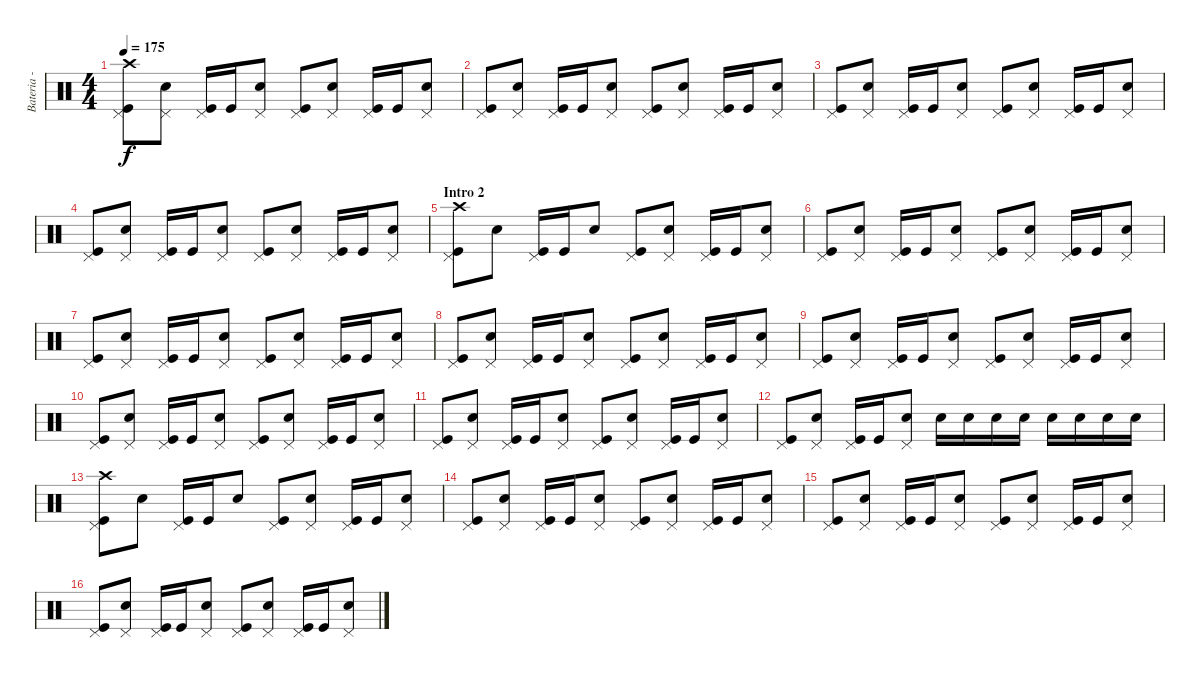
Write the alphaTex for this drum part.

\track ("Bateria - Larzon" "Bateria - ") {instrument percussion}
\staff {score}
\articulation defaults
\ts (4 4)
\tempo 175
\clef neutral
\ks c
("Crash high (hit)" "Kick (hit)" "Pedal Hi-Hat (hit)").8{dy f} ("Snare (hit) 2" "Pedal Hi-Hat (hit)").8 ("Kick (hit)" "Pedal Hi-Hat (hit)").16 "Kick (hit)".16 ("Snare (hit) 2" "Pedal Hi-Hat (hit)").8 ("Kick (hit)" "Pedal Hi-Hat (hit)").8 ("Snare (hit) 2" "Pedal Hi-Hat (hit)").8 ("Kick (hit)" "Pedal Hi-Hat (hit)").16 "Kick (hit)".16 ("Snare (hit) 2" "Pedal Hi-Hat (hit)").8 |
("Kick (hit)" "Pedal Hi-Hat (hit)").8 ("Snare (hit) 2" "Pedal Hi-Hat (hit)").8 ("Kick (hit)" "Pedal Hi-Hat (hit)").16 "Kick (hit)".16 ("Snare (hit) 2" "Pedal Hi-Hat (hit)").8 ("Kick (hit)" "Pedal Hi-Hat (hit)").8 ("Snare (hit) 2" "Pedal Hi-Hat (hit)").8 ("Kick (hit)" "Pedal Hi-Hat (hit)").16 "Kick (hit)".16 ("Snare (hit) 2" "Pedal Hi-Hat (hit)").8 |
("Kick (hit)" "Pedal Hi-Hat (hit)").8 ("Snare (hit) 2" "Pedal Hi-Hat (hit)").8 ("Kick (hit)" "Pedal Hi-Hat (hit)").16 "Kick (hit)".16 ("Snare (hit) 2" "Pedal Hi-Hat (hit)").8 ("Kick (hit)" "Pedal Hi-Hat (hit)").8 ("Snare (hit) 2" "Pedal Hi-Hat (hit)").8 ("Kick (hit)" "Pedal Hi-Hat (hit)").16 "Kick (hit)".16 ("Snare (hit) 2" "Pedal Hi-Hat (hit)").8 |
("Kick (hit)" "Pedal Hi-Hat (hit)").8 ("Snare (hit) 2" "Pedal Hi-Hat (hit)").8 ("Kick (hit)" "Pedal Hi-Hat (hit)").16 "Kick (hit)".16 ("Snare (hit) 2" "Pedal Hi-Hat (hit)").8 ("Kick (hit)" "Pedal Hi-Hat (hit)").8 ("Snare (hit) 2" "Pedal Hi-Hat (hit)").8 ("Kick (hit)" "Pedal Hi-Hat (hit)").16 "Kick (hit)".16 ("Snare (hit) 2" "Pedal Hi-Hat (hit)").8 |
\section ("" "Intro 2")
("Kick (hit)" "Crash high (hit)" "Pedal Hi-Hat (hit)").8 "Snare (hit) 2".8 ("Kick (hit)" "Pedal Hi-Hat (hit)").16 "Kick (hit)".16 "Snare (hit) 2".8 ("Kick (hit)" "Pedal Hi-Hat (hit)").8 ("Snare (hit) 2" "Pedal Hi-Hat (hit)").8 ("Kick (hit)" "Pedal Hi-Hat (hit)").16 "Kick (hit)".16 ("Snare (hit) 2" "Pedal Hi-Hat (hit)").8 |
("Kick (hit)" "Pedal Hi-Hat (hit)").8 ("Snare (hit) 2" "Pedal Hi-Hat (hit)").8 ("Kick (hit)" "Pedal Hi-Hat (hit)").16 "Kick (hit)".16 ("Snare (hit) 2" "Pedal Hi-Hat (hit)").8 ("Kick (hit)" "Pedal Hi-Hat (hit)").8 ("Snare (hit) 2" "Pedal Hi-Hat (hit)").8 ("Kick (hit)" "Pedal Hi-Hat (hit)").16 "Kick (hit)".16 ("Snare (hit) 2" "Pedal Hi-Hat (hit)").8 |
("Kick (hit)" "Pedal Hi-Hat (hit)").8 ("Snare (hit) 2" "Pedal Hi-Hat (hit)").8 ("Kick (hit)" "Pedal Hi-Hat (hit)").16 "Kick (hit)".16 ("Snare (hit) 2" "Pedal Hi-Hat (hit)").8 ("Kick (hit)" "Pedal Hi-Hat (hit)").8 ("Snare (hit) 2" "Pedal Hi-Hat (hit)").8 ("Kick (hit)" "Pedal Hi-Hat (hit)").16 "Kick (hit)".16 ("Snare (hit) 2" "Pedal Hi-Hat (hit)").8 |
("Kick (hit)" "Pedal Hi-Hat (hit)").8 ("Snare (hit) 2" "Pedal Hi-Hat (hit)").8 ("Kick (hit)" "Pedal Hi-Hat (hit)").16 "Kick (hit)".16 ("Snare (hit) 2" "Pedal Hi-Hat (hit)").8 ("Kick (hit)" "Pedal Hi-Hat (hit)").8 ("Snare (hit) 2" "Pedal Hi-Hat (hit)").8 ("Kick (hit)" "Pedal Hi-Hat (hit)").16 "Kick (hit)".16 ("Snare (hit) 2" "Pedal Hi-Hat (hit)").8 |
("Kick (hit)" "Pedal Hi-Hat (hit)").8 ("Snare (hit) 2" "Pedal Hi-Hat (hit)").8 ("Kick (hit)" "Pedal Hi-Hat (hit)").16 "Kick (hit)".16 ("Snare (hit) 2" "Pedal Hi-Hat (hit)").8 ("Kick (hit)" "Pedal Hi-Hat (hit)").8 ("Snare (hit) 2" "Pedal Hi-Hat (hit)").8 ("Kick (hit)" "Pedal Hi-Hat (hit)").16 "Kick (hit)".16 ("Snare (hit) 2" "Pedal Hi-Hat (hit)").8 |
("Kick (hit)" "Pedal Hi-Hat (hit)").8 ("Snare (hit) 2" "Pedal Hi-Hat (hit)").8 ("Kick (hit)" "Pedal Hi-Hat (hit)").16 "Kick (hit)".16 ("Snare (hit) 2" "Pedal Hi-Hat (hit)").8 ("Kick (hit)" "Pedal Hi-Hat (hit)").8 ("Snare (hit) 2" "Pedal Hi-Hat (hit)").8 ("Kick (hit)" "Pedal Hi-Hat (hit)").16 "Kick (hit)".16 ("Snare (hit) 2" "Pedal Hi-Hat (hit)").8 |
("Kick (hit)" "Pedal Hi-Hat (hit)").8 ("Snare (hit) 2" "Pedal Hi-Hat (hit)").8 ("Kick (hit)" "Pedal Hi-Hat (hit)").16 "Kick (hit)".16 ("Snare (hit) 2" "Pedal Hi-Hat (hit)").8 ("Kick (hit)" "Pedal Hi-Hat (hit)").8 ("Snare (hit) 2" "Pedal Hi-Hat (hit)").8 ("Kick (hit)" "Pedal Hi-Hat (hit)").16 "Kick (hit)".16 ("Snare (hit) 2" "Pedal Hi-Hat (hit)").8 |
("Kick (hit)" "Pedal Hi-Hat (hit)").8 ("Snare (hit) 2" "Pedal Hi-Hat (hit)").8 ("Kick (hit)" "Pedal Hi-Hat (hit)").16 "Kick (hit)".16 ("Snare (hit) 2" "Pedal Hi-Hat (hit)").8 "Snare (hit) 2".16 "Snare (hit) 2".16 "Snare (hit) 2".16 "Snare (hit) 2".16 "Snare (hit) 2".16 "Snare (hit) 2".16 "Snare (hit) 2".16 "Snare (hit) 2".16 |
("Kick (hit)" "Crash high (hit)" "Pedal Hi-Hat (hit)").8 "Snare (hit) 2".8 ("Kick (hit)" "Pedal Hi-Hat (hit)").16 "Kick (hit)".16 "Snare (hit) 2".8 ("Kick (hit)" "Pedal Hi-Hat (hit)").8 ("Snare (hit) 2" "Pedal Hi-Hat (hit)").8 ("Kick (hit)" "Pedal Hi-Hat (hit)").16 "Kick (hit)".16 ("Snare (hit) 2" "Pedal Hi-Hat (hit)").8 |
("Kick (hit)" "Pedal Hi-Hat (hit)").8 ("Snare (hit) 2" "Pedal Hi-Hat (hit)").8 ("Kick (hit)" "Pedal Hi-Hat (hit)").16 "Kick (hit)".16 ("Snare (hit) 2" "Pedal Hi-Hat (hit)").8 ("Kick (hit)" "Pedal Hi-Hat (hit)").8 ("Snare (hit) 2" "Pedal Hi-Hat (hit)").8 ("Kick (hit)" "Pedal Hi-Hat (hit)").16 "Kick (hit)".16 ("Snare (hit) 2" "Pedal Hi-Hat (hit)").8 |
("Kick (hit)" "Pedal Hi-Hat (hit)").8 ("Snare (hit) 2" "Pedal Hi-Hat (hit)").8 ("Kick (hit)" "Pedal Hi-Hat (hit)").16 "Kick (hit)".16 ("Snare (hit) 2" "Pedal Hi-Hat (hit)").8 ("Kick (hit)" "Pedal Hi-Hat (hit)").8 ("Snare (hit) 2" "Pedal Hi-Hat (hit)").8 ("Kick (hit)" "Pedal Hi-Hat (hit)").16 "Kick (hit)".16 ("Snare (hit) 2" "Pedal Hi-Hat (hit)").8 |
("Kick (hit)" "Pedal Hi-Hat (hit)").8 ("Snare (hit) 2" "Pedal Hi-Hat (hit)").8 ("Kick (hit)" "Pedal Hi-Hat (hit)").16 "Kick (hit)".16 ("Snare (hit) 2" "Pedal Hi-Hat (hit)").8 ("Kick (hit)" "Pedal Hi-Hat (hit)").8 ("Snare (hit) 2" "Pedal Hi-Hat (hit)").8 ("Kick (hit)" "Pedal Hi-Hat (hit)").16 "Kick (hit)".16 ("Snare (hit) 2" "Pedal Hi-Hat (hit)").8
